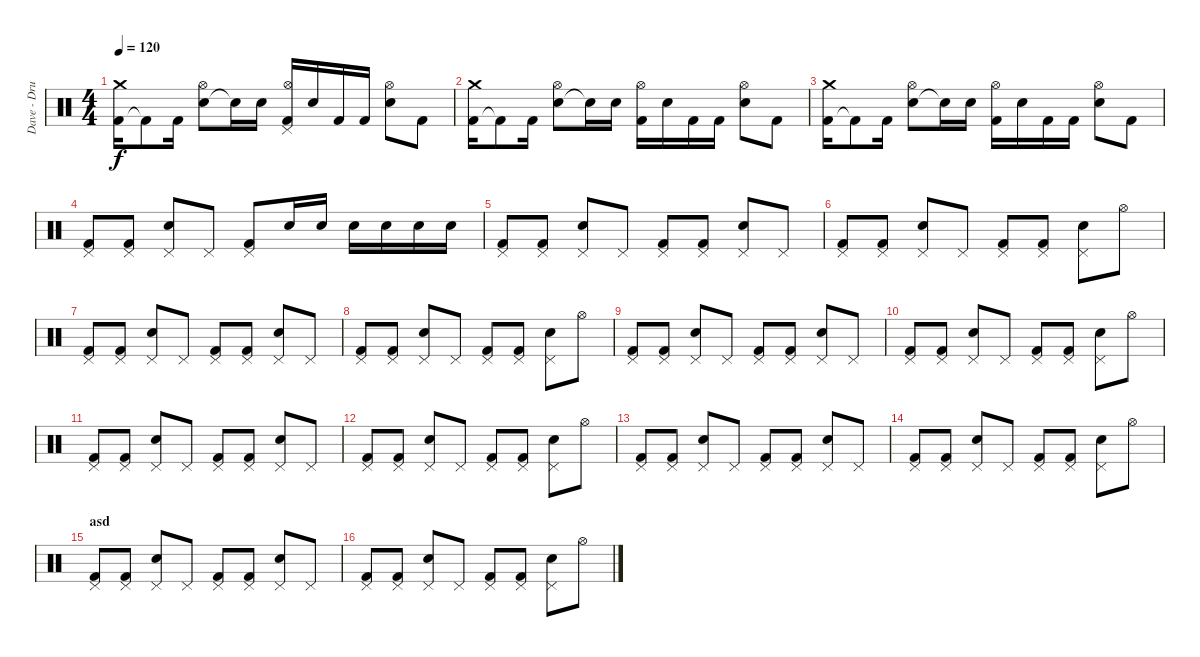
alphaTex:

\track ("Dave - Drums" "Dave - Dru") {instrument percussion}
\staff {score}
\articulation defaults
\ts (4 4)
\tempo 120
\clef neutral
\ks c
("Kick (hit) 2" "Crash medium (hit)").16{dy f} "Kick (hit) 2"{t}.8 "Kick (hit) 2".16 ("Snare (hit) 2" "Hi-Hat (open)").8 "Snare (hit)"{t}.16 "Snare (hit) 2".16 ("Kick (hit) 2" "Pedal Hi-Hat (hit)" "Hi-Hat (open)").16 "Snare (hit) 2".16 "Kick (hit) 2".16 "Kick (hit) 2".16 ("Snare (hit) 2" "Hi-Hat (open)").8 "Kick (hit) 2".8 |
("Kick (hit) 2" "Crash medium (hit)").16 "Kick (hit) 2"{t}.8 "Kick (hit) 2".16 ("Snare (hit) 2" "Hi-Hat (open)").8 "Snare (hit)"{t}.16 "Snare (hit) 2".16 ("Kick (hit) 2" "Hi-Hat (open)").16 "Snare (hit) 2".16 "Kick (hit) 2".16 "Kick (hit) 2".16 ("Snare (hit) 2" "Hi-Hat (open)").8 "Kick (hit) 2".8 |
("Kick (hit) 2" "Crash medium (hit)").16 "Kick (hit) 2"{t}.8 "Kick (hit) 2".16 ("Snare (hit) 2" "Hi-Hat (open)").8 "Snare (hit)"{t}.16 "Snare (hit) 2".16 ("Kick (hit) 2" "Hi-Hat (open)").16 "Snare (hit) 2".16 "Kick (hit) 2".16 "Kick (hit) 2".16 ("Snare (hit) 2" "Hi-Hat (open)").8 "Kick (hit) 2".8 |
("Kick (hit) 2" "Pedal Hi-Hat (hit)").8 ("Kick (hit) 2" "Pedal Hi-Hat (hit)").8 ("Snare (hit) 2" "Pedal Hi-Hat (hit)").8 "Pedal Hi-Hat (hit)".8 ("Kick (hit) 2" "Pedal Hi-Hat (hit)").8 "Snare (hit) 2".16 "Snare (hit) 2".16 "Snare (hit) 2".16 "Snare (hit) 2".16 "Snare (hit) 2".16 "Snare (hit) 2".16 |
("Kick (hit) 2" "Pedal Hi-Hat (hit)").8 ("Kick (hit) 2" "Pedal Hi-Hat (hit)").8 ("Snare (hit) 2" "Pedal Hi-Hat (hit)").8 "Pedal Hi-Hat (hit)".8 ("Kick (hit) 2" "Pedal Hi-Hat (hit)").8 ("Kick (hit) 2" "Pedal Hi-Hat (hit)").8 ("Snare (hit) 2" "Pedal Hi-Hat (hit)").8 "Pedal Hi-Hat (hit)".8 |
("Kick (hit) 2" "Pedal Hi-Hat (hit)").8 ("Kick (hit) 2" "Pedal Hi-Hat (hit)").8 ("Snare (hit) 2" "Pedal Hi-Hat (hit)").8 "Pedal Hi-Hat (hit)".8 ("Kick (hit) 2" "Pedal Hi-Hat (hit)").8 ("Kick (hit) 2" "Pedal Hi-Hat (hit)").8 ("Snare (hit) 2" "Pedal Hi-Hat (hit)").8 "Hi-Hat (open)".8 |
("Kick (hit) 2" "Pedal Hi-Hat (hit)").8 ("Kick (hit) 2" "Pedal Hi-Hat (hit)").8 ("Snare (hit) 2" "Pedal Hi-Hat (hit)").8 "Pedal Hi-Hat (hit)".8 ("Kick (hit) 2" "Pedal Hi-Hat (hit)").8 ("Kick (hit) 2" "Pedal Hi-Hat (hit)").8 ("Snare (hit) 2" "Pedal Hi-Hat (hit)").8 "Pedal Hi-Hat (hit)".8 |
("Kick (hit) 2" "Pedal Hi-Hat (hit)").8 ("Kick (hit) 2" "Pedal Hi-Hat (hit)").8 ("Snare (hit) 2" "Pedal Hi-Hat (hit)").8 "Pedal Hi-Hat (hit)".8 ("Kick (hit) 2" "Pedal Hi-Hat (hit)").8 ("Kick (hit) 2" "Pedal Hi-Hat (hit)").8 ("Snare (hit) 2" "Pedal Hi-Hat (hit)").8 "Hi-Hat (open)".8 |
("Kick (hit) 2" "Pedal Hi-Hat (hit)").8 ("Kick (hit) 2" "Pedal Hi-Hat (hit)").8 ("Snare (hit) 2" "Pedal Hi-Hat (hit)").8 "Pedal Hi-Hat (hit)".8 ("Kick (hit) 2" "Pedal Hi-Hat (hit)").8 ("Kick (hit) 2" "Pedal Hi-Hat (hit)").8 ("Snare (hit) 2" "Pedal Hi-Hat (hit)").8 "Pedal Hi-Hat (hit)".8 |
("Kick (hit) 2" "Pedal Hi-Hat (hit)").8 ("Kick (hit) 2" "Pedal Hi-Hat (hit)").8 ("Snare (hit) 2" "Pedal Hi-Hat (hit)").8 "Pedal Hi-Hat (hit)".8 ("Kick (hit) 2" "Pedal Hi-Hat (hit)").8 ("Kick (hit) 2" "Pedal Hi-Hat (hit)").8 ("Snare (hit) 2" "Pedal Hi-Hat (hit)").8 "Hi-Hat (open)".8 |
("Kick (hit) 2" "Pedal Hi-Hat (hit)").8 ("Kick (hit) 2" "Pedal Hi-Hat (hit)").8 ("Snare (hit) 2" "Pedal Hi-Hat (hit)").8 "Pedal Hi-Hat (hit)".8 ("Kick (hit) 2" "Pedal Hi-Hat (hit)").8 ("Kick (hit) 2" "Pedal Hi-Hat (hit)").8 ("Snare (hit) 2" "Pedal Hi-Hat (hit)").8 "Pedal Hi-Hat (hit)".8 |
("Kick (hit) 2" "Pedal Hi-Hat (hit)").8 ("Kick (hit) 2" "Pedal Hi-Hat (hit)").8 ("Snare (hit) 2" "Pedal Hi-Hat (hit)").8 "Pedal Hi-Hat (hit)".8 ("Kick (hit) 2" "Pedal Hi-Hat (hit)").8 ("Kick (hit) 2" "Pedal Hi-Hat (hit)").8 ("Snare (hit) 2" "Pedal Hi-Hat (hit)").8 "Hi-Hat (open)".8 |
("Kick (hit) 2" "Pedal Hi-Hat (hit)").8 ("Kick (hit) 2" "Pedal Hi-Hat (hit)").8 ("Snare (hit) 2" "Pedal Hi-Hat (hit)").8 "Pedal Hi-Hat (hit)".8 ("Kick (hit) 2" "Pedal Hi-Hat (hit)").8 ("Kick (hit) 2" "Pedal Hi-Hat (hit)").8 ("Snare (hit) 2" "Pedal Hi-Hat (hit)").8 "Pedal Hi-Hat (hit)".8 |
("Kick (hit) 2" "Pedal Hi-Hat (hit)").8 ("Kick (hit) 2" "Pedal Hi-Hat (hit)").8 ("Snare (hit) 2" "Pedal Hi-Hat (hit)").8 "Pedal Hi-Hat (hit)".8 ("Kick (hit) 2" "Pedal Hi-Hat (hit)").8 ("Kick (hit) 2" "Pedal Hi-Hat (hit)").8 ("Snare (hit) 2" "Pedal Hi-Hat (hit)").8 "Hi-Hat (open)".8 |
\section ("" "asd")
("Kick (hit) 2" "Pedal Hi-Hat (hit)").8 ("Kick (hit) 2" "Pedal Hi-Hat (hit)").8 ("Snare (hit) 2" "Pedal Hi-Hat (hit)").8 "Pedal Hi-Hat (hit)".8 ("Kick (hit) 2" "Pedal Hi-Hat (hit)").8 ("Kick (hit) 2" "Pedal Hi-Hat (hit)").8 ("Snare (hit) 2" "Pedal Hi-Hat (hit)").8 "Pedal Hi-Hat (hit)".8 |
("Kick (hit) 2" "Pedal Hi-Hat (hit)").8 ("Kick (hit) 2" "Pedal Hi-Hat (hit)").8 ("Snare (hit) 2" "Pedal Hi-Hat (hit)").8 "Pedal Hi-Hat (hit)".8 ("Kick (hit) 2" "Pedal Hi-Hat (hit)").8 ("Kick (hit) 2" "Pedal Hi-Hat (hit)").8 ("Snare (hit) 2" "Pedal Hi-Hat (hit)").8 "Hi-Hat (open)".8
